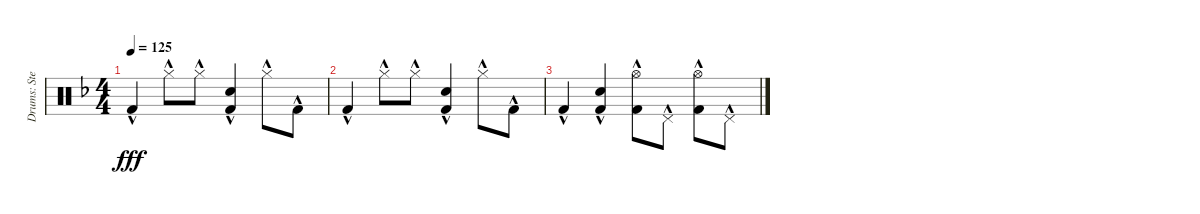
\track ("Drums: Steve" "Drums: Ste") {instrument percussion}
\staff {score}
\articulation defaults
\ts (4 4)
\tempo 125
\clef neutral
\ks f "Kick (hit) 2"{hac}.4{dy fff} "Hi-Hat (closed)"{hac}.8 "Hi-Hat (closed)"{hac}.8
("Electric Snare (hit)"{hac} "Kick (hit) 2"{hac}).4 "Hi-Hat (closed)"{hac}.8 "Kick (hit) 2"{hac}.8 |
"Kick (hit) 2"{hac}.4 "Hi-Hat (closed)"{hac}.8 "Hi-Hat (closed)"{hac}.8 ("Electric Snare (hit)"{hac} "Kick (hit) 2"{hac}).4 "Hi-Hat (closed)"{hac}.8 "Kick (hit) 2"{hac}.8 |
"Kick (hit) 2"{hac}.4 ("Electric Snare (hit)"{hac} "Kick (hit) 2"{hac}).4 ("Hi-Hat (open)"{hac} "Kick (hit) 2"{hac}).8 "Pedal Hi-Hat (hit)"{hac}.8 ("Hi-Hat (open)"{hac} "Kick (hit) 2"{hac}).8 "Pedal Hi-Hat (hit)"{hac}.8
